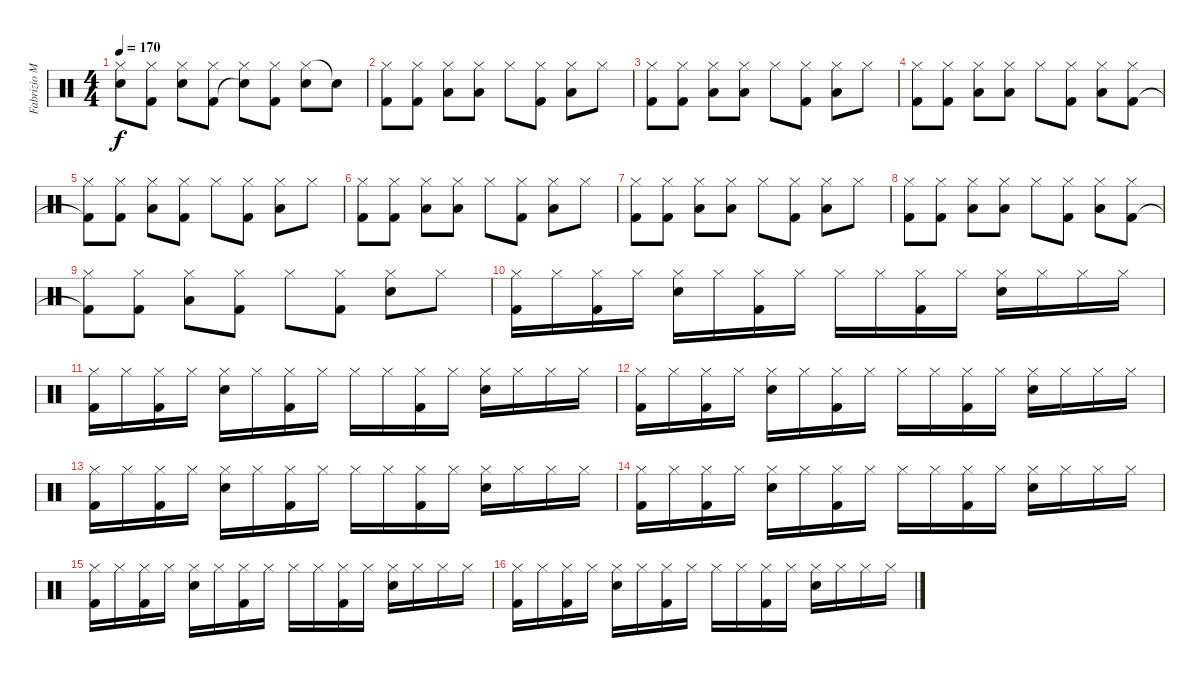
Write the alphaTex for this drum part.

\track ("Fabrizio Moretti" "Fabrizio M") {instrument percussion}
\staff {score}
\articulation defaults
\ts (4 4)
\tempo 170
\clef neutral
\ks c
("Hi-Hat (closed)" "Snare (hit)"{t}).8{dy f} ("Hi-Hat (closed)" "Kick (hit) 2").8 ("Hi-Hat (closed)" "Electric Snare (hit)").8 ("Hi-Hat (closed)" "Kick (hit) 2").8 ("Hi-Hat (closed)" "Snare (hit)"{t}).8 ("Hi-Hat (closed)" "Kick (hit) 2").8 ("Hi-Hat (closed)" "Electric Snare (hit)").8 "Snare (hit)"{t}.8 |
("Hi-Hat (closed)" "Kick (hit) 2").8 ("Hi-Hat (closed)" "Kick (hit) 2").8 ("Hi-Hat (closed)" "Low Tom (hit)").8 ("Hi-Hat (closed)" "Low Tom (hit)").8 "Hi-Hat (closed)".8 ("Hi-Hat (closed)" "Kick (hit) 2").8 ("Hi-Hat (closed)" "Low Tom (hit)").8 "Hi-Hat (closed)".8 |
("Hi-Hat (closed)" "Kick (hit) 2").8 ("Hi-Hat (closed)" "Kick (hit) 2").8 ("Hi-Hat (closed)" "Low Tom (hit)").8 ("Hi-Hat (closed)" "Low Tom (hit)").8 "Hi-Hat (closed)".8 ("Hi-Hat (closed)" "Kick (hit) 2").8 ("Hi-Hat (closed)" "Low Tom (hit)").8 "Hi-Hat (closed)".8 |
("Hi-Hat (closed)" "Kick (hit) 2").8 ("Hi-Hat (closed)" "Kick (hit) 2").8 ("Hi-Hat (closed)" "Low Tom (hit)").8 ("Hi-Hat (closed)" "Low Tom (hit)").8 "Hi-Hat (closed)".8 ("Hi-Hat (closed)" "Kick (hit) 2").8 ("Hi-Hat (closed)" "Low Tom (hit)").8 ("Hi-Hat (closed)" "Kick (hit) 2").8 |
("Hi-Hat (closed)" "Kick (hit) 2"{t}).8 ("Hi-Hat (closed)" "Kick (hit) 2").8 ("Hi-Hat (closed)" "Low Tom (hit)").8 ("Hi-Hat (closed)" "Kick (hit) 2").8 "Hi-Hat (closed)".8 ("Hi-Hat (closed)" "Kick (hit) 2").8 ("Hi-Hat (closed)" "Low Tom (hit)").8 "Hi-Hat (closed)".8 |
("Hi-Hat (closed)" "Kick (hit) 2").8 ("Hi-Hat (closed)" "Kick (hit) 2").8 ("Hi-Hat (closed)" "Low Tom (hit)").8 ("Hi-Hat (closed)" "Low Tom (hit)").8 "Hi-Hat (closed)".8 ("Hi-Hat (closed)" "Kick (hit) 2").8 ("Hi-Hat (closed)" "Low Tom (hit)").8 "Hi-Hat (closed)".8 |
("Hi-Hat (closed)" "Kick (hit) 2").8 ("Hi-Hat (closed)" "Kick (hit) 2").8 ("Hi-Hat (closed)" "Low Tom (hit)").8 ("Hi-Hat (closed)" "Low Tom (hit)").8 "Hi-Hat (closed)".8 ("Hi-Hat (closed)" "Kick (hit) 2").8 ("Hi-Hat (closed)" "Low Tom (hit)").8 "Hi-Hat (closed)".8 |
("Hi-Hat (closed)" "Kick (hit) 2").8 ("Hi-Hat (closed)" "Kick (hit) 2").8 ("Hi-Hat (closed)" "Low Tom (hit)").8 ("Hi-Hat (closed)" "Low Tom (hit)").8 "Hi-Hat (closed)".8 ("Hi-Hat (closed)" "Kick (hit) 2").8 ("Hi-Hat (closed)" "Low Tom (hit)").8 ("Hi-Hat (closed)" "Kick (hit) 2").8 |
("Hi-Hat (closed)" "Kick (hit) 2"{t}).8 ("Hi-Hat (closed)" "Kick (hit) 2").8 ("Hi-Hat (closed)" "Low Tom (hit)").8 ("Hi-Hat (closed)" "Kick (hit) 2").8 "Hi-Hat (closed)".8 ("Hi-Hat (closed)" "Kick (hit) 2").8 ("Hi-Hat (closed)" "Electric Snare (hit)").8 "Hi-Hat (closed)".8 |
("Hi-Hat (closed)" "Kick (hit) 2").16 "Hi-Hat (closed)".16 ("Hi-Hat (closed)" "Kick (hit) 2").16 "Hi-Hat (closed)".16 ("Hi-Hat (closed)" "Electric Snare (hit)").16 "Hi-Hat (closed)".16 ("Hi-Hat (closed)" "Kick (hit) 2").16 "Hi-Hat (closed)".16 "Hi-Hat (closed)".16 "Hi-Hat (closed)".16 ("Hi-Hat (closed)" "Kick (hit) 2").16 "Hi-Hat (closed)".16 ("Hi-Hat (closed)" "Electric Snare (hit)").16 "Hi-Hat (closed)".16 "Hi-Hat (closed)".16 "Hi-Hat (closed)".16 |
("Hi-Hat (closed)" "Kick (hit) 2").16 "Hi-Hat (closed)".16 ("Hi-Hat (closed)" "Kick (hit) 2").16 "Hi-Hat (closed)".16 ("Hi-Hat (closed)" "Electric Snare (hit)").16 "Hi-Hat (closed)".16 ("Hi-Hat (closed)" "Kick (hit) 2").16 "Hi-Hat (closed)".16 "Hi-Hat (closed)".16 "Hi-Hat (closed)".16 ("Hi-Hat (closed)" "Kick (hit) 2").16 "Hi-Hat (closed)".16 ("Hi-Hat (closed)" "Electric Snare (hit)").16 "Hi-Hat (closed)".16 "Hi-Hat (closed)".16 "Hi-Hat (closed)".16 |
("Hi-Hat (closed)" "Kick (hit) 2").16 "Hi-Hat (closed)".16 ("Hi-Hat (closed)" "Kick (hit) 2").16 "Hi-Hat (closed)".16 ("Hi-Hat (closed)" "Electric Snare (hit)").16 "Hi-Hat (closed)".16 ("Hi-Hat (closed)" "Kick (hit) 2").16 "Hi-Hat (closed)".16 "Hi-Hat (closed)".16 "Hi-Hat (closed)".16 ("Hi-Hat (closed)" "Kick (hit) 2").16 "Hi-Hat (closed)".16 ("Hi-Hat (closed)" "Electric Snare (hit)").16 "Hi-Hat (closed)".16 "Hi-Hat (closed)".16 "Hi-Hat (closed)".16 |
("Hi-Hat (closed)" "Kick (hit) 2").16 "Hi-Hat (closed)".16 ("Hi-Hat (closed)" "Kick (hit) 2").16 "Hi-Hat (closed)".16 ("Hi-Hat (closed)" "Electric Snare (hit)").16 "Hi-Hat (closed)".16 ("Hi-Hat (closed)" "Kick (hit) 2").16 "Hi-Hat (closed)".16 "Hi-Hat (closed)".16 "Hi-Hat (closed)".16 ("Hi-Hat (closed)" "Kick (hit) 2").16 "Hi-Hat (closed)".16 ("Hi-Hat (closed)" "Electric Snare (hit)").16 "Hi-Hat (closed)".16 "Hi-Hat (closed)".16 "Hi-Hat (closed)".16 |
("Hi-Hat (closed)" "Kick (hit) 2").16 "Hi-Hat (closed)".16 ("Hi-Hat (closed)" "Kick (hit) 2").16 "Hi-Hat (closed)".16 ("Hi-Hat (closed)" "Electric Snare (hit)").16 "Hi-Hat (closed)".16 ("Hi-Hat (closed)" "Kick (hit) 2").16 "Hi-Hat (closed)".16 "Hi-Hat (closed)".16 "Hi-Hat (closed)".16 ("Hi-Hat (closed)" "Kick (hit) 2").16 "Hi-Hat (closed)".16 ("Hi-Hat (closed)" "Electric Snare (hit)").16 "Hi-Hat (closed)".16 "Hi-Hat (closed)".16 "Hi-Hat (closed)".16 |
("Hi-Hat (closed)" "Kick (hit) 2").16 "Hi-Hat (closed)".16 ("Hi-Hat (closed)" "Kick (hit) 2").16 "Hi-Hat (closed)".16 ("Hi-Hat (closed)" "Electric Snare (hit)").16 "Hi-Hat (closed)".16 ("Hi-Hat (closed)" "Kick (hit) 2").16 "Hi-Hat (closed)".16 "Hi-Hat (closed)".16 "Hi-Hat (closed)".16 ("Hi-Hat (closed)" "Kick (hit) 2").16 "Hi-Hat (closed)".16 ("Hi-Hat (closed)" "Electric Snare (hit)").16 "Hi-Hat (closed)".16 "Hi-Hat (closed)".16 "Hi-Hat (closed)".16 |
("Hi-Hat (closed)" "Kick (hit) 2").16 "Hi-Hat (closed)".16 ("Hi-Hat (closed)" "Kick (hit) 2").16 "Hi-Hat (closed)".16 ("Hi-Hat (closed)" "Electric Snare (hit)").16 "Hi-Hat (closed)".16 ("Hi-Hat (closed)" "Kick (hit) 2").16 "Hi-Hat (closed)".16 "Hi-Hat (closed)".16 "Hi-Hat (closed)".16 ("Hi-Hat (closed)" "Kick (hit) 2").16 "Hi-Hat (closed)".16 ("Hi-Hat (closed)" "Electric Snare (hit)").16 "Hi-Hat (closed)".16 "Hi-Hat (closed)".16 "Hi-Hat (closed)".16
